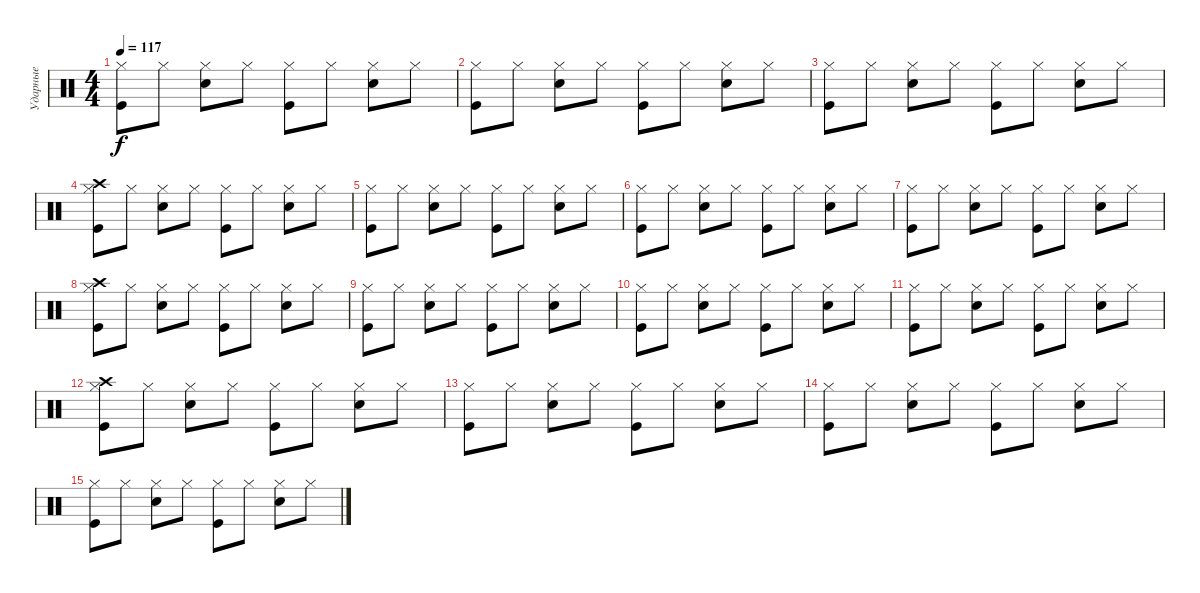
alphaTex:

\track ("Ударные" "Ударные") {instrument percussion}
\staff {score}
\articulation defaults
\ts (4 4)
\tempo 117
\clef neutral
\ks c
("Kick (hit)" "Hi-Hat (closed)").8{dy f} "Hi-Hat (closed)".8 ("Hi-Hat (closed)" "Snare (hit) 2").8 "Hi-Hat (closed)".8 ("Kick (hit)" "Hi-Hat (closed)").8 "Hi-Hat (closed)".8 ("Hi-Hat (closed)" "Snare (hit) 2").8 "Hi-Hat (closed)".8 |
("Kick (hit)" "Hi-Hat (closed)").8 "Hi-Hat (closed)".8 ("Hi-Hat (closed)" "Snare (hit) 2").8 "Hi-Hat (closed)".8 ("Kick (hit)" "Hi-Hat (closed)").8 "Hi-Hat (closed)".8 ("Hi-Hat (closed)" "Snare (hit) 2").8 "Hi-Hat (closed)".8 |
("Kick (hit)" "Hi-Hat (closed)").8 "Hi-Hat (closed)".8 ("Hi-Hat (closed)" "Snare (hit) 2").8 "Hi-Hat (closed)".8 ("Kick (hit)" "Hi-Hat (closed)").8 "Hi-Hat (closed)".8 ("Hi-Hat (closed)" "Snare (hit) 2").8 "Hi-Hat (closed)".8 |
("Kick (hit)" "Hi-Hat (closed)" "Crash high (hit)").8 "Hi-Hat (closed)".8 ("Hi-Hat (closed)" "Snare (hit) 2").8 "Hi-Hat (closed)".8 ("Kick (hit)" "Hi-Hat (closed)").8 "Hi-Hat (closed)".8 ("Hi-Hat (closed)" "Snare (hit) 2").8 "Hi-Hat (closed)".8 |
("Kick (hit)" "Hi-Hat (closed)").8 "Hi-Hat (closed)".8 ("Hi-Hat (closed)" "Snare (hit) 2").8 "Hi-Hat (closed)".8 ("Kick (hit)" "Hi-Hat (closed)").8 "Hi-Hat (closed)".8 ("Hi-Hat (closed)" "Snare (hit) 2").8 "Hi-Hat (closed)".8 |
("Kick (hit)" "Hi-Hat (closed)").8 "Hi-Hat (closed)".8 ("Hi-Hat (closed)" "Snare (hit) 2").8 "Hi-Hat (closed)".8 ("Kick (hit)" "Hi-Hat (closed)").8 "Hi-Hat (closed)".8 ("Hi-Hat (closed)" "Snare (hit) 2").8 "Hi-Hat (closed)".8 |
("Kick (hit)" "Hi-Hat (closed)").8 "Hi-Hat (closed)".8 ("Hi-Hat (closed)" "Snare (hit) 2").8 "Hi-Hat (closed)".8 ("Kick (hit)" "Hi-Hat (closed)").8 "Hi-Hat (closed)".8 ("Hi-Hat (closed)" "Snare (hit) 2").8 "Hi-Hat (closed)".8 |
("Kick (hit)" "Hi-Hat (closed)" "Crash high (hit)").8 "Hi-Hat (closed)".8 ("Hi-Hat (closed)" "Snare (hit) 2").8 "Hi-Hat (closed)".8 ("Kick (hit)" "Hi-Hat (closed)").8 "Hi-Hat (closed)".8 ("Hi-Hat (closed)" "Snare (hit) 2").8 "Hi-Hat (closed)".8 |
("Kick (hit)" "Hi-Hat (closed)").8 "Hi-Hat (closed)".8 ("Hi-Hat (closed)" "Snare (hit) 2").8 "Hi-Hat (closed)".8 ("Kick (hit)" "Hi-Hat (closed)").8 "Hi-Hat (closed)".8 ("Hi-Hat (closed)" "Snare (hit) 2").8 "Hi-Hat (closed)".8 |
("Kick (hit)" "Hi-Hat (closed)").8 "Hi-Hat (closed)".8 ("Hi-Hat (closed)" "Snare (hit) 2").8 "Hi-Hat (closed)".8 ("Kick (hit)" "Hi-Hat (closed)").8 "Hi-Hat (closed)".8 ("Hi-Hat (closed)" "Snare (hit) 2").8 "Hi-Hat (closed)".8 |
("Kick (hit)" "Hi-Hat (closed)").8 "Hi-Hat (closed)".8 ("Hi-Hat (closed)" "Snare (hit) 2").8 "Hi-Hat (closed)".8 ("Kick (hit)" "Hi-Hat (closed)").8 "Hi-Hat (closed)".8 ("Hi-Hat (closed)" "Snare (hit) 2").8 "Hi-Hat (closed)".8 |
("Kick (hit)" "Hi-Hat (closed)" "Crash high (hit)").8 "Hi-Hat (closed)".8 ("Hi-Hat (closed)" "Snare (hit) 2").8 "Hi-Hat (closed)".8 ("Kick (hit)" "Hi-Hat (closed)").8 "Hi-Hat (closed)".8 ("Hi-Hat (closed)" "Snare (hit) 2").8 "Hi-Hat (closed)".8 |
("Kick (hit)" "Hi-Hat (closed)").8 "Hi-Hat (closed)".8 ("Hi-Hat (closed)" "Snare (hit) 2").8 "Hi-Hat (closed)".8 ("Kick (hit)" "Hi-Hat (closed)").8 "Hi-Hat (closed)".8 ("Hi-Hat (closed)" "Snare (hit) 2").8 "Hi-Hat (closed)".8 |
("Kick (hit)" "Hi-Hat (closed)").8 "Hi-Hat (closed)".8 ("Hi-Hat (closed)" "Snare (hit) 2").8 "Hi-Hat (closed)".8 ("Kick (hit)" "Hi-Hat (closed)").8 "Hi-Hat (closed)".8 ("Hi-Hat (closed)" "Snare (hit) 2").8 "Hi-Hat (closed)".8 |
("Kick (hit)" "Hi-Hat (closed)").8 "Hi-Hat (closed)".8 ("Hi-Hat (closed)" "Snare (hit) 2").8 "Hi-Hat (closed)".8 ("Kick (hit)" "Hi-Hat (closed)").8 "Hi-Hat (closed)".8 ("Hi-Hat (closed)" "Snare (hit) 2").8 "Hi-Hat (closed)".8
